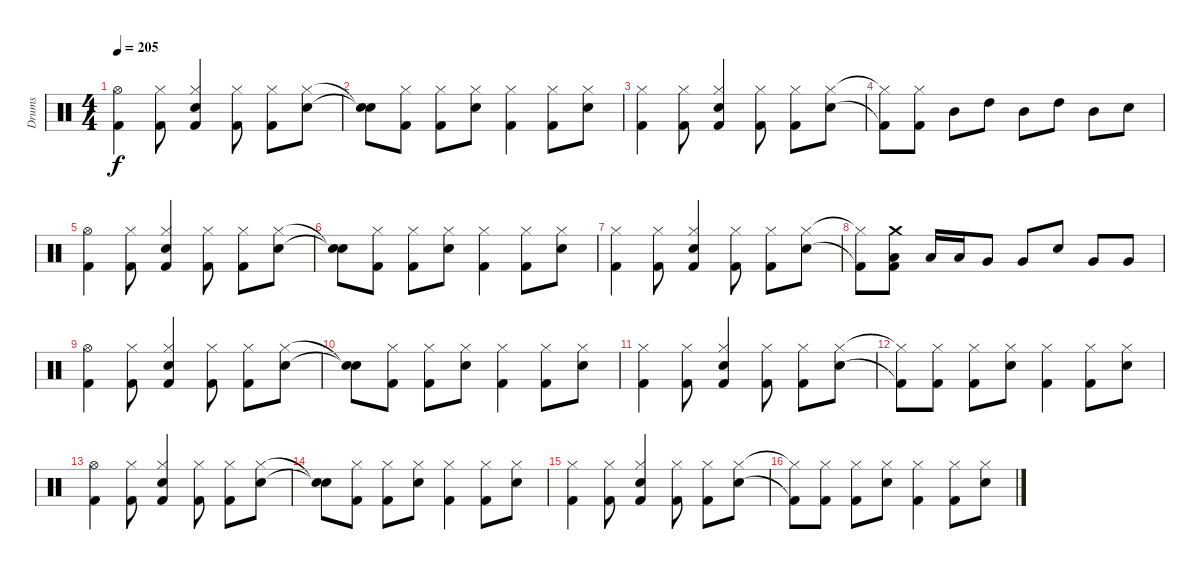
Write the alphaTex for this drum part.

\track ("Drums" "Drums") {instrument percussion}
\staff {score}
\articulation defaults
\ts (4 4)
\tempo 205
\clef neutral
\ks c
("Hi-Hat (open)" "Kick (hit) 2").4{dy f} ("Hi-Hat (closed)" "Kick (hit) 2").8 ("Electric Snare (hit)" "Hi-Hat (closed)" "Kick (hit) 2").4 ("Hi-Hat (closed)" "Kick (hit) 2").8 ("Hi-Hat (closed)" "Kick (hit) 2").8 ("Hi-Hat (closed)" "Electric Snare (hit)").8 |
("Snare (hit)"{t} "Snare (hit)"{t}).8 ("Hi-Hat (closed)" "Kick (hit) 2").8 ("Hi-Hat (closed)" "Kick (hit) 2").8 ("Hi-Hat (closed)" "Electric Snare (hit)").8 ("Hi-Hat (closed)" "Kick (hit) 2").4 ("Hi-Hat (closed)" "Kick (hit) 2").8 ("Electric Snare (hit)" "Hi-Hat (closed)").8 |
("Hi-Hat (closed)" "Kick (hit) 2").4 ("Hi-Hat (closed)" "Kick (hit) 2").8 ("Hi-Hat (closed)" "Electric Snare (hit)" "Kick (hit) 2").4 ("Hi-Hat (closed)" "Kick (hit) 2").8 ("Hi-Hat (closed)" "Kick (hit) 2").8 ("Hi-Hat (closed)" "Electric Snare (hit)").8 |
("Hi-Hat (closed)"{t} "Kick (hit) 2"{t}).8 ("Hi-Hat (closed)" "Kick (hit) 2").8 "Mid Tom (hit)".8 "High Tom (hit)".8 "Mid Tom (hit)".8 "High Tom (hit)".8 "Mid Tom (hit)".8 "Electric Snare (hit)".8 |
("Hi-Hat (open)" "Kick (hit) 2").4 ("Hi-Hat (closed)" "Kick (hit) 2").8 ("Electric Snare (hit)" "Hi-Hat (closed)" "Kick (hit) 2").4 ("Hi-Hat (closed)" "Kick (hit) 2").8 ("Hi-Hat (closed)" "Kick (hit) 2").8 ("Hi-Hat (closed)" "Electric Snare (hit)").8 |
("Snare (hit)"{t} "Snare (hit)"{t}).8 ("Hi-Hat (closed)" "Kick (hit) 2").8 ("Hi-Hat (closed)" "Kick (hit) 2").8 ("Hi-Hat (closed)" "Electric Snare (hit)").8 ("Hi-Hat (closed)" "Kick (hit) 2").4 ("Hi-Hat (closed)" "Kick (hit) 2").8 ("Electric Snare (hit)" "Hi-Hat (closed)").8 |
("Hi-Hat (closed)" "Kick (hit) 2").4 ("Hi-Hat (closed)" "Kick (hit) 2").8 ("Hi-Hat (closed)" "Electric Snare (hit)" "Kick (hit) 2").4 ("Hi-Hat (closed)" "Kick (hit) 2").8 ("Hi-Hat (closed)" "Kick (hit) 2").8 ("Hi-Hat (closed)" "Electric Snare (hit)").8 |
("Hi-Hat (closed)"{t} "Kick (hit) 2"{t}).8 ("Crash medium (hit)" "Low Tom (hit)" "Kick (hit) 2").8 "Low Tom (hit)".16 "Low Tom (hit)".16 "Very Low Tom (hit)".8 "Very Low Tom (hit)".8 "Electric Snare (hit)".8 "Very Low Tom (hit)".8 "Very Low Tom (hit)".8 |
("Hi-Hat (open)" "Kick (hit) 2").4 ("Hi-Hat (closed)" "Kick (hit) 2").8 ("Electric Snare (hit)" "Hi-Hat (closed)" "Kick (hit) 2").4 ("Hi-Hat (closed)" "Kick (hit) 2").8 ("Hi-Hat (closed)" "Kick (hit) 2").8 ("Hi-Hat (closed)" "Electric Snare (hit)").8 |
("Snare (hit)"{t} "Snare (hit)"{t}).8 ("Hi-Hat (closed)" "Kick (hit) 2").8 ("Hi-Hat (closed)" "Kick (hit) 2").8 ("Hi-Hat (closed)" "Electric Snare (hit)").8 ("Hi-Hat (closed)" "Kick (hit) 2").4 ("Hi-Hat (closed)" "Kick (hit) 2").8 ("Electric Snare (hit)" "Hi-Hat (closed)").8 |
("Hi-Hat (closed)" "Kick (hit) 2").4 ("Hi-Hat (closed)" "Kick (hit) 2").8 ("Hi-Hat (closed)" "Electric Snare (hit)" "Kick (hit) 2").4 ("Hi-Hat (closed)" "Kick (hit) 2").8 ("Hi-Hat (closed)" "Kick (hit) 2").8 ("Hi-Hat (closed)" "Electric Snare (hit)").8 |
("Hi-Hat (closed)"{t} "Kick (hit) 2"{t}).8 ("Hi-Hat (closed)" "Kick (hit) 2").8 ("Hi-Hat (closed)" "Kick (hit) 2").8 ("Electric Snare (hit)" "Hi-Hat (closed)").8 ("Hi-Hat (closed)" "Kick (hit) 2").4 ("Hi-Hat (closed)" "Kick (hit) 2").8 ("Hi-Hat (closed)" "Electric Snare (hit)").8 |
("Hi-Hat (open)" "Kick (hit) 2").4 ("Hi-Hat (closed)" "Kick (hit) 2").8 ("Electric Snare (hit)" "Hi-Hat (closed)" "Kick (hit) 2").4 ("Hi-Hat (closed)" "Kick (hit) 2").8 ("Hi-Hat (closed)" "Kick (hit) 2").8 ("Hi-Hat (closed)" "Electric Snare (hit)").8 |
("Snare (hit)"{t} "Snare (hit)"{t}).8 ("Hi-Hat (closed)" "Kick (hit) 2").8 ("Hi-Hat (closed)" "Kick (hit) 2").8 ("Hi-Hat (closed)" "Electric Snare (hit)").8 ("Hi-Hat (closed)" "Kick (hit) 2").4 ("Hi-Hat (closed)" "Kick (hit) 2").8 ("Electric Snare (hit)" "Hi-Hat (closed)").8 |
("Hi-Hat (closed)" "Kick (hit) 2").4 ("Hi-Hat (closed)" "Kick (hit) 2").8 ("Hi-Hat (closed)" "Electric Snare (hit)" "Kick (hit) 2").4 ("Hi-Hat (closed)" "Kick (hit) 2").8 ("Hi-Hat (closed)" "Kick (hit) 2").8 ("Hi-Hat (closed)" "Electric Snare (hit)").8 |
("Hi-Hat (closed)"{t} "Kick (hit) 2"{t}).8 ("Hi-Hat (closed)" "Kick (hit) 2").8 ("Hi-Hat (closed)" "Kick (hit) 2").8 ("Electric Snare (hit)" "Hi-Hat (closed)").8 ("Hi-Hat (closed)" "Kick (hit) 2").4 ("Hi-Hat (closed)" "Kick (hit) 2").8 ("Hi-Hat (closed)" "Electric Snare (hit)").8
